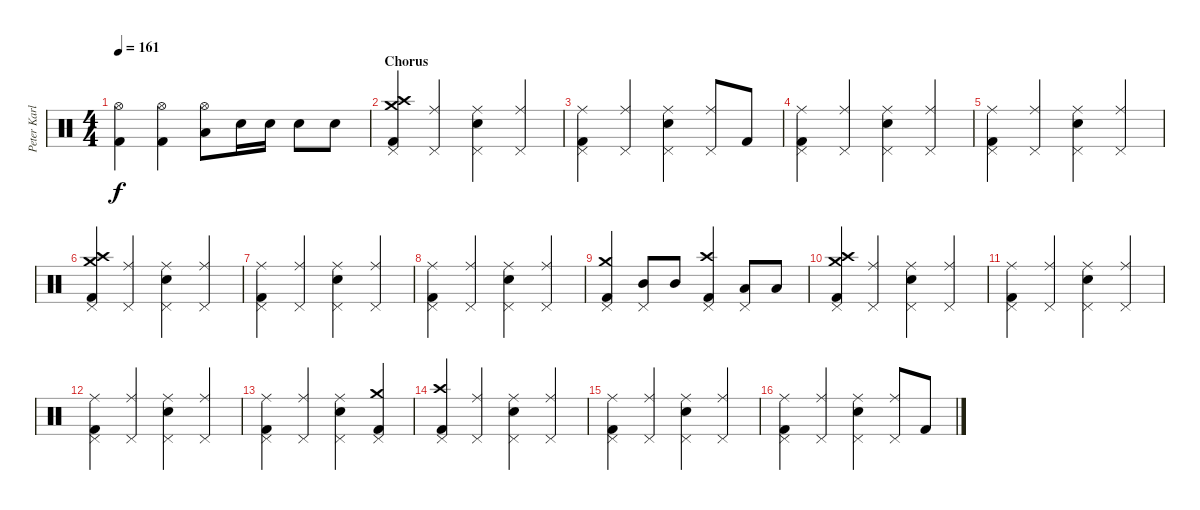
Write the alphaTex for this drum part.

\track ("Peter Karlsson" "Peter Karl") {instrument percussion}
\staff {score}
\articulation defaults
\ts (4 4)
\tempo 161
\clef neutral
\ks c
("Hi-Hat (open)" "Kick (hit) 2").4{dy f} ("Hi-Hat (open)" "Kick (hit) 2").4 ("Hi-Hat (open)" "Low Tom (hit)").8 "Snare (hit) 2".16 "Snare (hit) 2".16 "Snare (hit) 2".8 "Snare (hit) 2".8 |
\section ("" "Chorus")
("Crash high (hit)" "Crash medium (hit)" "Pedal Hi-Hat (hit)" "Kick (hit) 2").4 ("Ride (middle)" "Pedal Hi-Hat (hit)").4 ("Ride (middle)" "Snare (hit) 2" "Pedal Hi-Hat (hit)").4 ("Ride (middle)" "Pedal Hi-Hat (hit)").4 |
("Ride (middle)" "Pedal Hi-Hat (hit)" "Kick (hit) 2").4 ("Ride (middle)" "Pedal Hi-Hat (hit)").4 ("Ride (middle)" "Snare (hit) 2" "Pedal Hi-Hat (hit)").4 ("Ride (middle)" "Pedal Hi-Hat (hit)").8 "Kick (hit) 2".8 |
("Ride (middle)" "Pedal Hi-Hat (hit)" "Kick (hit) 2").4 ("Ride (middle)" "Pedal Hi-Hat (hit)").4 ("Ride (middle)" "Snare (hit) 2" "Pedal Hi-Hat (hit)").4 ("Ride (middle)" "Pedal Hi-Hat (hit)").4 |
("Ride (middle)" "Pedal Hi-Hat (hit)" "Kick (hit) 2").4 ("Ride (middle)" "Pedal Hi-Hat (hit)").4 ("Ride (middle)" "Snare (hit) 2" "Pedal Hi-Hat (hit)").4 ("Ride (middle)" "Pedal Hi-Hat (hit)").4 |
("Crash high (hit)" "Crash medium (hit)" "Pedal Hi-Hat (hit)" "Kick (hit) 2").4 ("Ride (middle)" "Pedal Hi-Hat (hit)").4 ("Ride (middle)" "Snare (hit) 2" "Pedal Hi-Hat (hit)").4 ("Ride (middle)" "Pedal Hi-Hat (hit)").4 |
("Ride (middle)" "Pedal Hi-Hat (hit)" "Kick (hit) 2").4 ("Ride (middle)" "Pedal Hi-Hat (hit)").4 ("Ride (middle)" "Snare (hit) 2" "Pedal Hi-Hat (hit)").4 ("Ride (middle)" "Pedal Hi-Hat (hit)").4 |
("Ride (middle)" "Pedal Hi-Hat (hit)" "Kick (hit) 2").4 ("Ride (middle)" "Pedal Hi-Hat (hit)").4 ("Ride (middle)" "Snare (hit) 2" "Pedal Hi-Hat (hit)").4 ("Ride (middle)" "Pedal Hi-Hat (hit)").4 |
("Crash medium (hit)" "Pedal Hi-Hat (hit)" "Kick (hit) 2").4 ("Mid Tom (hit)" "Pedal Hi-Hat (hit)").8 "Mid Tom (hit)".8 ("Crash high (hit)" "Pedal Hi-Hat (hit)" "Kick (hit) 2").4 ("Low Tom (hit)" "Pedal Hi-Hat (hit)").8 "Low Tom (hit)".8 |
("Crash high (hit)" "Crash medium (hit)" "Pedal Hi-Hat (hit)" "Kick (hit) 2").4 ("Ride (middle)" "Pedal Hi-Hat (hit)").4 ("Ride (middle)" "Snare (hit) 2" "Pedal Hi-Hat (hit)").4 ("Ride (middle)" "Pedal Hi-Hat (hit)").4 |
("Ride (middle)" "Pedal Hi-Hat (hit)" "Kick (hit) 2").4 ("Ride (middle)" "Pedal Hi-Hat (hit)").4 ("Ride (middle)" "Snare (hit) 2" "Pedal Hi-Hat (hit)").4 ("Ride (middle)" "Pedal Hi-Hat (hit)").4 |
("Ride (middle)" "Pedal Hi-Hat (hit)" "Kick (hit) 2").4 ("Ride (middle)" "Pedal Hi-Hat (hit)").4 ("Ride (middle)" "Snare (hit) 2" "Pedal Hi-Hat (hit)").4 ("Ride (middle)" "Pedal Hi-Hat (hit)").4 |
("Ride (middle)" "Pedal Hi-Hat (hit)" "Kick (hit) 2").4 ("Ride (middle)" "Pedal Hi-Hat (hit)").4 ("Ride (middle)" "Snare (hit) 2" "Pedal Hi-Hat (hit)").4 ("Crash medium (hit)" "Pedal Hi-Hat (hit)" "Kick (hit) 2").4 |
("Crash high (hit)" "Pedal Hi-Hat (hit)" "Kick (hit) 2").4 ("Ride (middle)" "Pedal Hi-Hat (hit)").4 ("Ride (middle)" "Snare (hit) 2" "Pedal Hi-Hat (hit)").4 ("Ride (middle)" "Pedal Hi-Hat (hit)").4 |
("Ride (middle)" "Pedal Hi-Hat (hit)" "Kick (hit) 2").4 ("Ride (middle)" "Pedal Hi-Hat (hit)").4 ("Ride (middle)" "Snare (hit) 2" "Pedal Hi-Hat (hit)").4 ("Ride (middle)" "Pedal Hi-Hat (hit)").4 |
("Ride (middle)" "Pedal Hi-Hat (hit)" "Kick (hit) 2").4 ("Ride (middle)" "Pedal Hi-Hat (hit)").4 ("Ride (middle)" "Snare (hit) 2" "Pedal Hi-Hat (hit)").4 ("Ride (middle)" "Pedal Hi-Hat (hit)").8 "Kick (hit) 2".8
